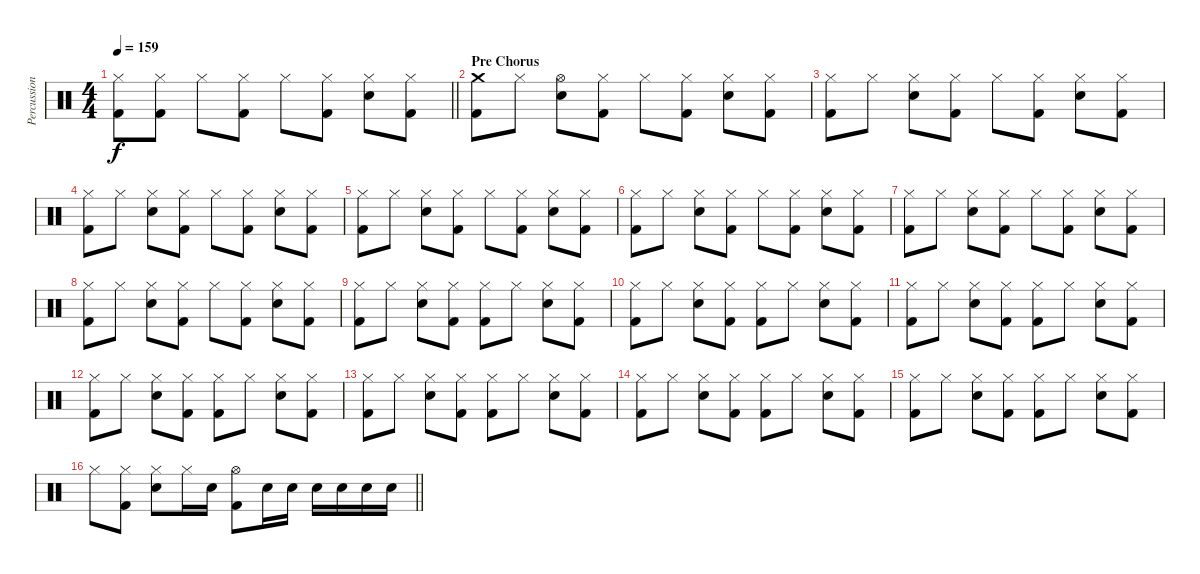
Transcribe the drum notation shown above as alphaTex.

\track ("Percussion" "Percussion") {instrument percussion}
\staff {score}
\articulation defaults
\ts (4 4)
\tempo 159
\clef neutral
\barLineRight lightlight
\ks c
("Hi-Hat (closed)" "Kick (hit) 2").8{dy f} ("Hi-Hat (closed)" "Kick (hit) 2").8 "Hi-Hat (closed)".8 ("Hi-Hat (closed)" "Kick (hit) 2").8 "Hi-Hat (closed)".8 ("Hi-Hat (closed)" "Kick (hit) 2").8 ("Hi-Hat (closed)" "Electric Snare (hit)").8 ("Hi-Hat (closed)" "Kick (hit) 2").8 |
\section ("" "Pre Chorus")
("Crash medium (hit)" "Kick (hit) 2").8 "Hi-Hat (closed)".8 ("Hi-Hat (open)" "Electric Snare (hit)").8 ("Hi-Hat (closed)" "Kick (hit) 2").8 "Hi-Hat (closed)".8 ("Hi-Hat (closed)" "Kick (hit) 2").8 ("Hi-Hat (closed)" "Electric Snare (hit)").8 ("Hi-Hat (closed)" "Kick (hit) 2").8 |
("Hi-Hat (closed)" "Kick (hit) 2").8 "Hi-Hat (closed)".8 ("Hi-Hat (closed)" "Electric Snare (hit)").8 ("Hi-Hat (closed)" "Kick (hit) 2").8 "Hi-Hat (closed)".8 ("Hi-Hat (closed)" "Kick (hit) 2").8 ("Hi-Hat (closed)" "Electric Snare (hit)").8 ("Hi-Hat (closed)" "Kick (hit) 2").8 |
("Hi-Hat (closed)" "Kick (hit) 2").8 "Hi-Hat (closed)".8 ("Hi-Hat (closed)" "Electric Snare (hit)").8 ("Hi-Hat (closed)" "Kick (hit) 2").8 "Hi-Hat (closed)".8 ("Hi-Hat (closed)" "Kick (hit) 2").8 ("Hi-Hat (closed)" "Electric Snare (hit)").8 ("Hi-Hat (closed)" "Kick (hit) 2").8 |
("Hi-Hat (closed)" "Kick (hit) 2").8 "Hi-Hat (closed)".8 ("Hi-Hat (closed)" "Electric Snare (hit)").8 ("Hi-Hat (closed)" "Kick (hit) 2").8 "Hi-Hat (closed)".8 ("Hi-Hat (closed)" "Kick (hit) 2").8 ("Hi-Hat (closed)" "Electric Snare (hit)").8 ("Hi-Hat (closed)" "Kick (hit) 2").8 |
("Hi-Hat (closed)" "Kick (hit) 2").8 "Hi-Hat (closed)".8 ("Hi-Hat (closed)" "Electric Snare (hit)").8 ("Hi-Hat (closed)" "Kick (hit) 2").8 "Hi-Hat (closed)".8 ("Hi-Hat (closed)" "Kick (hit) 2").8 ("Hi-Hat (closed)" "Electric Snare (hit)").8 ("Hi-Hat (closed)" "Kick (hit) 2").8 |
("Hi-Hat (closed)" "Kick (hit) 2").8 "Hi-Hat (closed)".8 ("Hi-Hat (closed)" "Electric Snare (hit)").8 ("Hi-Hat (closed)" "Kick (hit) 2").8 "Hi-Hat (closed)".8 ("Hi-Hat (closed)" "Kick (hit) 2").8 ("Hi-Hat (closed)" "Electric Snare (hit)").8 ("Hi-Hat (closed)" "Kick (hit) 2").8 |
("Hi-Hat (closed)" "Kick (hit) 2").8 "Hi-Hat (closed)".8 ("Hi-Hat (closed)" "Electric Snare (hit)").8 ("Hi-Hat (closed)" "Kick (hit) 2").8 "Hi-Hat (closed)".8 ("Hi-Hat (closed)" "Kick (hit) 2").8 ("Hi-Hat (closed)" "Electric Snare (hit)").8 ("Hi-Hat (closed)" "Kick (hit) 2").8 |
("Hi-Hat (closed)" "Kick (hit) 2").8 "Hi-Hat (closed)".8 ("Hi-Hat (closed)" "Electric Snare (hit)").8 ("Hi-Hat (closed)" "Kick (hit) 2").8 ("Hi-Hat (closed)" "Kick (hit) 2").8 "Hi-Hat (closed)".8 ("Hi-Hat (closed)" "Electric Snare (hit)").8 ("Hi-Hat (closed)" "Kick (hit) 2").8 |
("Hi-Hat (closed)" "Kick (hit) 2").8 "Hi-Hat (closed)".8 ("Hi-Hat (closed)" "Electric Snare (hit)").8 ("Hi-Hat (closed)" "Kick (hit) 2").8 ("Hi-Hat (closed)" "Kick (hit) 2").8 "Hi-Hat (closed)".8 ("Hi-Hat (closed)" "Electric Snare (hit)").8 ("Hi-Hat (closed)" "Kick (hit) 2").8 |
("Hi-Hat (closed)" "Kick (hit) 2").8 "Hi-Hat (closed)".8 ("Hi-Hat (closed)" "Electric Snare (hit)").8 ("Hi-Hat (closed)" "Kick (hit) 2").8 ("Hi-Hat (closed)" "Kick (hit) 2").8 "Hi-Hat (closed)".8 ("Hi-Hat (closed)" "Electric Snare (hit)").8 ("Hi-Hat (closed)" "Kick (hit) 2").8 |
("Hi-Hat (closed)" "Kick (hit) 2").8 "Hi-Hat (closed)".8 ("Hi-Hat (closed)" "Electric Snare (hit)").8 ("Hi-Hat (closed)" "Kick (hit) 2").8 ("Hi-Hat (closed)" "Kick (hit) 2").8 "Hi-Hat (closed)".8 ("Hi-Hat (closed)" "Electric Snare (hit)").8 ("Hi-Hat (closed)" "Kick (hit) 2").8 |
("Hi-Hat (closed)" "Kick (hit) 2").8 "Hi-Hat (closed)".8 ("Hi-Hat (closed)" "Electric Snare (hit)").8 ("Hi-Hat (closed)" "Kick (hit) 2").8 ("Hi-Hat (closed)" "Kick (hit) 2").8 "Hi-Hat (closed)".8 ("Hi-Hat (closed)" "Electric Snare (hit)").8 ("Hi-Hat (closed)" "Kick (hit) 2").8 |
("Hi-Hat (closed)" "Kick (hit) 2").8 "Hi-Hat (closed)".8 ("Hi-Hat (closed)" "Electric Snare (hit)").8 ("Hi-Hat (closed)" "Kick (hit) 2").8 ("Hi-Hat (closed)" "Kick (hit) 2").8 "Hi-Hat (closed)".8 ("Hi-Hat (closed)" "Electric Snare (hit)").8 ("Hi-Hat (closed)" "Kick (hit) 2").8 |
("Hi-Hat (closed)" "Kick (hit) 2").8 "Hi-Hat (closed)".8 ("Hi-Hat (closed)" "Electric Snare (hit)").8 ("Hi-Hat (closed)" "Kick (hit) 2").8 ("Hi-Hat (closed)" "Kick (hit) 2").8 "Hi-Hat (closed)".8 ("Hi-Hat (closed)" "Electric Snare (hit)").8 ("Hi-Hat (closed)" "Kick (hit) 2").8 |
\barLineRight lightlight "Hi-Hat (closed)".8
("Hi-Hat (closed)" "Kick (hit) 2").8 ("Hi-Hat (closed)" "Electric Snare (hit)").8 "Hi-Hat (closed)".16 "Electric Snare (hit)".16 ("Hi-Hat (open)" "Kick (hit) 2").8 "Electric Snare (hit)".16 "Electric Snare (hit)".16 "Electric Snare (hit)".16 "Electric Snare (hit)".16 "Electric Snare (hit)".16 "Electric Snare (hit)".16
